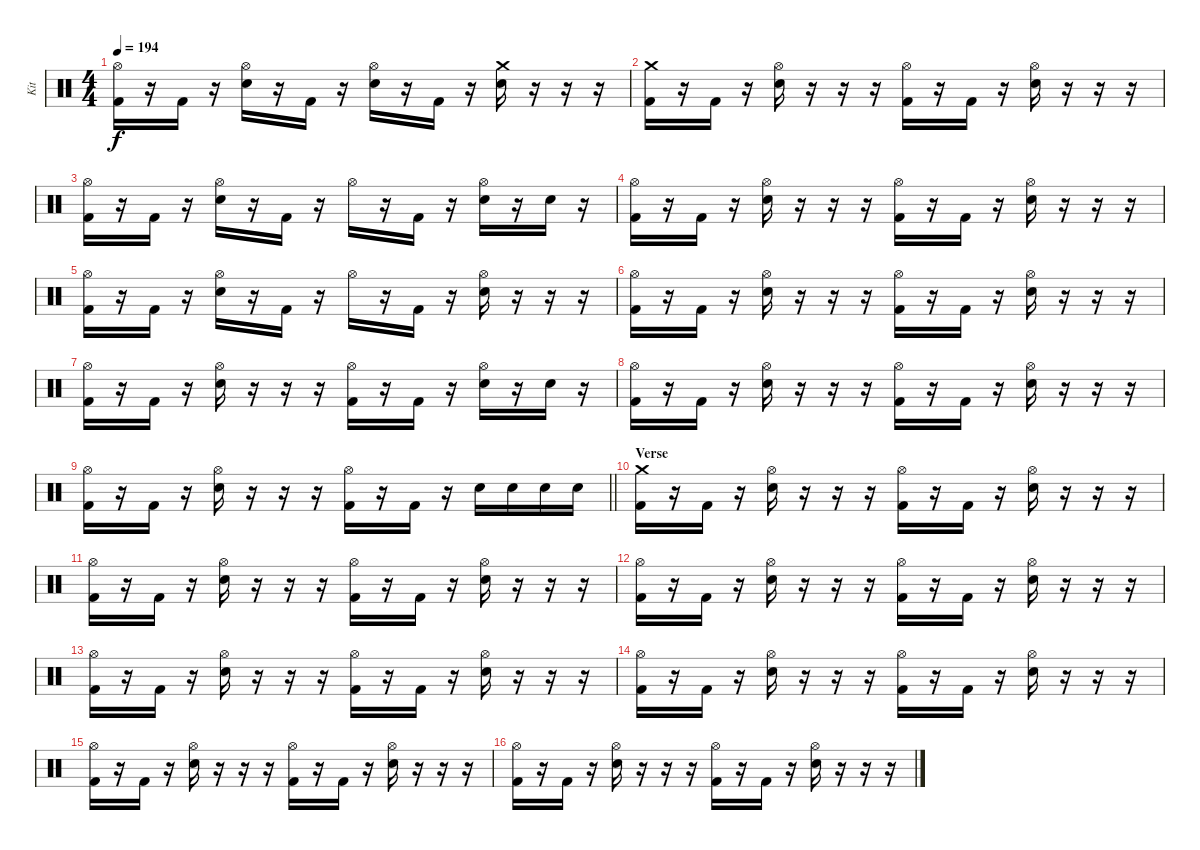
\track ("Kit" "Kit") {instrument percussion}
\staff {score}
\articulation defaults
\ts (4 4)
\tempo 194
\clef neutral
\ks c
("Hi-Hat (open)" "Kick (hit) 2").16{dy f} r.16 "Kick (hit) 2".16 r.16 ("Hi-Hat (open)" "Electric Snare (hit)").16 r.16 "Kick (hit) 2".16 r.16 ("Hi-Hat (open)" "Electric Snare (hit)").16 r.16 "Kick (hit) 2".16 r.16 ("Crash medium (hit)" "Electric Snare (hit)").16 r.16 r.16 r.16 |
("Crash medium (hit)" "Kick (hit) 2").16 r.16 "Kick (hit) 2".16 r.16 ("Hi-Hat (open)" "Electric Snare (hit)").16 r.16 r.16 r.16 ("Hi-Hat (open)" "Kick (hit) 2").16 r.16 "Kick (hit) 2".16 r.16 ("Hi-Hat (open)" "Electric Snare (hit)").16 r.16 r.16 r.16 |
("Hi-Hat (open)" "Kick (hit) 2").16 r.16 "Kick (hit) 2".16 r.16 ("Hi-Hat (open)" "Electric Snare (hit)").16 r.16 "Kick (hit) 2".16 r.16 "Hi-Hat (open)".16 r.16 "Kick (hit) 2".16 r.16 ("Hi-Hat (open)" "Electric Snare (hit)").16 r.16 "Electric Snare (hit)".16 r.16 |
("Hi-Hat (open)" "Kick (hit) 2").16 r.16 "Kick (hit) 2".16 r.16 ("Hi-Hat (open)" "Electric Snare (hit)").16 r.16 r.16 r.16 ("Hi-Hat (open)" "Kick (hit) 2").16 r.16 "Kick (hit) 2".16 r.16 ("Hi-Hat (open)" "Electric Snare (hit)").16 r.16 r.16 r.16 |
("Hi-Hat (open)" "Kick (hit) 2").16 r.16 "Kick (hit) 2".16 r.16 ("Hi-Hat (open)" "Electric Snare (hit)").16 r.16 "Kick (hit) 2".16 r.16 "Hi-Hat (open)".16 r.16 "Kick (hit) 2".16 r.16 ("Hi-Hat (open)" "Electric Snare (hit)").16 r.16 r.16 r.16 |
("Hi-Hat (open)" "Kick (hit) 2").16 r.16 "Kick (hit) 2".16 r.16 ("Hi-Hat (open)" "Electric Snare (hit)").16 r.16 r.16 r.16 ("Hi-Hat (open)" "Kick (hit) 2").16 r.16 "Kick (hit) 2".16 r.16 ("Hi-Hat (open)" "Electric Snare (hit)").16 r.16 r.16 r.16 |
("Hi-Hat (open)" "Kick (hit) 2").16 r.16 "Kick (hit) 2".16 r.16 ("Hi-Hat (open)" "Electric Snare (hit)").16 r.16 r.16 r.16 ("Hi-Hat (open)" "Kick (hit) 2").16 r.16 "Kick (hit) 2".16 r.16 ("Hi-Hat (open)" "Electric Snare (hit)").16 r.16 "Electric Snare (hit)".16 r.16 |
("Hi-Hat (open)" "Kick (hit) 2").16 r.16 "Kick (hit) 2".16 r.16 ("Hi-Hat (open)" "Electric Snare (hit)").16 r.16 r.16 r.16 ("Hi-Hat (open)" "Kick (hit) 2").16 r.16 "Kick (hit) 2".16 r.16 ("Hi-Hat (open)" "Electric Snare (hit)").16 r.16 r.16 r.16 |
\barLineRight lightlight
("Hi-Hat (open)" "Kick (hit) 2").16 r.16 "Kick (hit) 2".16 r.16 ("Hi-Hat (open)" "Electric Snare (hit)").16 r.16 r.16 r.16 ("Hi-Hat (open)" "Kick (hit) 2").16 r.16 "Kick (hit) 2".16 r.16 "Electric Snare (hit)".16 "Electric Snare (hit)".16 "Electric Snare (hit)".16 "Electric Snare (hit)".16 |
\section ("" "Verse")
("Crash medium (hit)" "Kick (hit) 2").16 r.16 "Kick (hit) 2".16 r.16 ("Hi-Hat (open)" "Electric Snare (hit)").16 r.16 r.16 r.16 ("Hi-Hat (open)" "Kick (hit) 2").16 r.16 "Kick (hit) 2".16 r.16 ("Hi-Hat (open)" "Electric Snare (hit)").16 r.16 r.16 r.16 |
("Hi-Hat (open)" "Kick (hit) 2").16 r.16 "Kick (hit) 2".16 r.16 ("Hi-Hat (open)" "Electric Snare (hit)").16 r.16 r.16 r.16 ("Hi-Hat (open)" "Kick (hit) 2").16 r.16 "Kick (hit) 2".16 r.16 ("Hi-Hat (open)" "Electric Snare (hit)").16 r.16 r.16 r.16 |
("Hi-Hat (open)" "Kick (hit) 2").16 r.16 "Kick (hit) 2".16 r.16 ("Hi-Hat (open)" "Electric Snare (hit)").16 r.16 r.16 r.16 ("Hi-Hat (open)" "Kick (hit) 2").16 r.16 "Kick (hit) 2".16 r.16 ("Hi-Hat (open)" "Electric Snare (hit)").16 r.16 r.16 r.16 |
("Hi-Hat (open)" "Kick (hit) 2").16 r.16 "Kick (hit) 2".16 r.16 ("Hi-Hat (open)" "Electric Snare (hit)").16 r.16 r.16 r.16 ("Hi-Hat (open)" "Kick (hit) 2").16 r.16 "Kick (hit) 2".16 r.16 ("Hi-Hat (open)" "Electric Snare (hit)").16 r.16 r.16 r.16 |
("Hi-Hat (open)" "Kick (hit) 2").16 r.16 "Kick (hit) 2".16 r.16 ("Hi-Hat (open)" "Electric Snare (hit)").16 r.16 r.16 r.16 ("Hi-Hat (open)" "Kick (hit) 2").16 r.16 "Kick (hit) 2".16 r.16 ("Hi-Hat (open)" "Electric Snare (hit)").16 r.16 r.16 r.16 |
("Hi-Hat (open)" "Kick (hit) 2").16 r.16 "Kick (hit) 2".16 r.16 ("Hi-Hat (open)" "Electric Snare (hit)").16 r.16 r.16 r.16 ("Hi-Hat (open)" "Kick (hit) 2").16 r.16 "Kick (hit) 2".16 r.16 ("Hi-Hat (open)" "Electric Snare (hit)").16 r.16 r.16 r.16 |
("Hi-Hat (open)" "Kick (hit) 2").16 r.16 "Kick (hit) 2".16 r.16 ("Hi-Hat (open)" "Electric Snare (hit)").16 r.16 r.16 r.16 ("Hi-Hat (open)" "Kick (hit) 2").16 r.16 "Kick (hit) 2".16 r.16 ("Hi-Hat (open)" "Electric Snare (hit)").16 r.16 r.16 r.16
